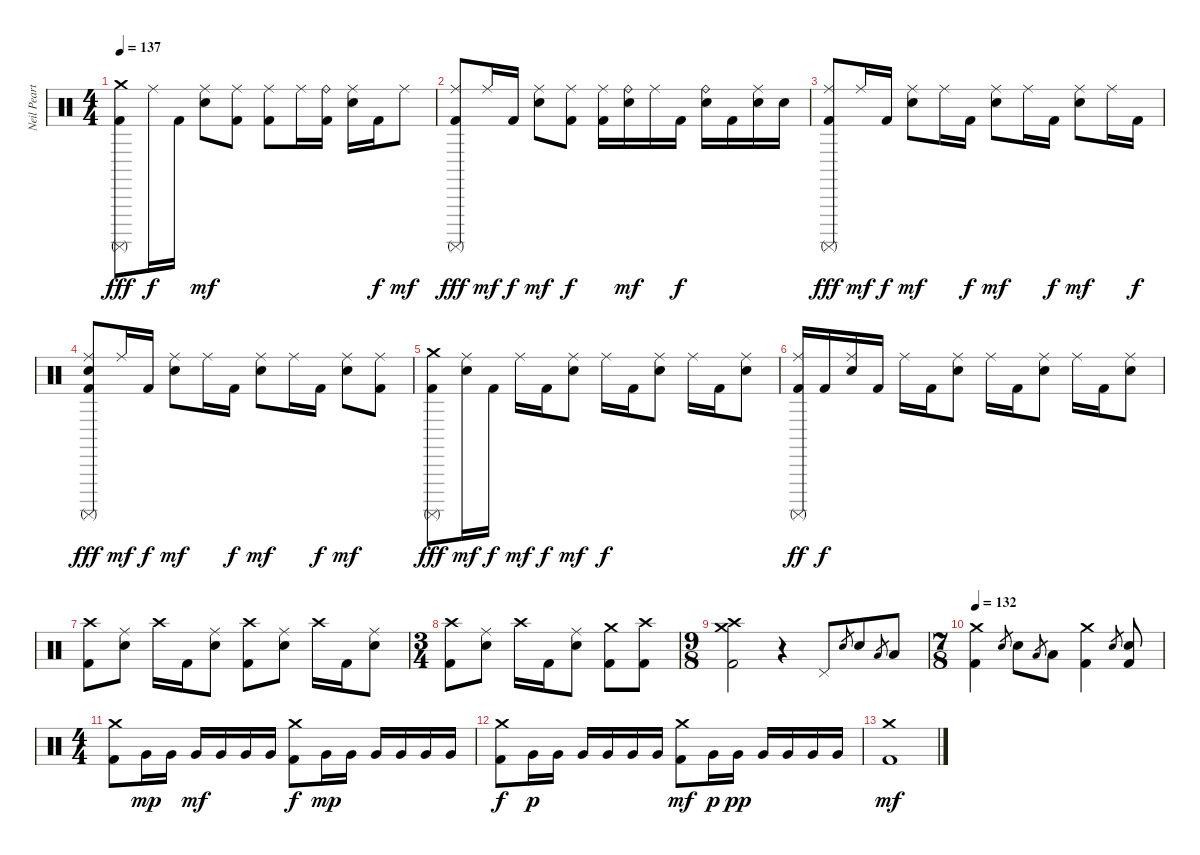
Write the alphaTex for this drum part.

\track ("Neil Peart, Percusión" "Neil Peart") {instrument percussion}
\staff {score}
\articulation defaults
\ts (4 4)
\tempo 137
\clef neutral
\ks c
("Crash medium (hit)" "Surdo (mute)" "Kick (hit) 2").8{dy fff} "Ride (middle)".16{dy f} "Kick (hit) 2".16 ("Ride (middle)" "Electric Snare (hit)").8{dy mf} ("Ride (middle)" "Kick (hit) 2").8 ("Ride (middle)" "Kick (hit) 2").8 "Ride (middle)".16 ("Ride (bell)" "Kick (hit) 2").16 ("Ride (middle)" "Electric Snare (hit)").16 "Kick (hit) 2".16{dy f} "Ride (middle)".8{dy mf} |
("Ride (middle)" "Surdo (mute)" "Kick (hit) 2").8{dy fff} "Ride (middle)".16{dy mf} "Kick (hit) 2".16{dy f} ("Ride (middle)" "Electric Snare (hit)").8{dy mf} ("Ride (middle)" "Kick (hit) 2").8{dy f} ("Ride (middle)" "Kick (hit) 2").16 ("Ride (bell)" "Electric Snare (hit)").16{dy mf} "Ride (middle)".16 "Kick (hit) 2".16{dy f} ("Ride (bell)" "Electric Snare (hit)").16 "Kick (hit) 2".16 ("Ride (middle)" "Electric Snare (hit)").16 "Electric Snare (hit)".16 |
("Ride (middle)" "Surdo (mute)" "Kick (hit) 2").8{dy fff} "Ride (middle)".16{dy mf} "Kick (hit) 2".16{dy f} ("Ride (middle)" "Electric Snare (hit)").8{dy mf} "Ride (middle)".16 "Kick (hit) 2".16{dy f} ("Ride (middle)" "Electric Snare (hit)").8{dy mf} "Ride (middle)".16 "Kick (hit) 2".16{dy f} ("Ride (middle)" "Electric Snare (hit)").8{dy mf} "Ride (middle)".16 "Kick (hit) 2".16{dy f} |
("Ride (middle)" "Electric Snare (hit)" "Surdo (mute)" "Kick (hit) 2").8{dy fff} "Ride (middle)".16{dy mf} "Kick (hit) 2".16{dy f} ("Ride (middle)" "Electric Snare (hit)").8{dy mf} "Ride (middle)".16 "Kick (hit) 2".16{dy f} ("Ride (middle)" "Electric Snare (hit)").8{dy mf} "Ride (middle)".16 "Kick (hit) 2".16{dy f} ("Ride (middle)" "Electric Snare (hit)").8{dy mf} ("Ride (middle)" "Kick (hit) 2").8 |
("Crash medium (hit)" "Surdo (mute)" "Kick (hit) 2").8{dy fff} ("Ride (middle)" "Electric Snare (hit)").16{dy mf} "Kick (hit) 2".16{dy f} "Ride (middle)".16{dy mf} "Kick (hit) 2".16{dy f} ("Ride (middle)" "Electric Snare (hit)").8{dy mf} "Ride (middle)".16{dy f} "Kick (hit) 2".16 ("Ride (middle)" "Electric Snare (hit)").8 "Ride (middle)".16 "Kick (hit) 2".16 ("Ride (middle)" "Electric Snare (hit)").8 |
("Ride (middle)" "Surdo (mute)" "Kick (hit) 2").16{dy ff} "Kick (hit) 2".16{dy f} ("Ride (middle)" "Electric Snare (hit)").16 "Kick (hit) 2".16 "Ride (middle)".16 "Kick (hit) 2".16 ("Ride (middle)" "Electric Snare (hit)").8 "Ride (middle)".16 "Kick (hit) 2".16 ("Ride (middle)" "Electric Snare (hit)").8 "Ride (middle)".16 "Kick (hit) 2".16 ("Ride (middle)" "Electric Snare (hit)").8 |
("Crash high (hit)" "Kick (hit) 2").8 ("Ride (middle)" "Electric Snare (hit)").8 "Crash high (hit)".16 "Kick (hit) 2".16 ("Ride (middle)" "Electric Snare (hit)").8 ("Crash high (hit)" "Kick (hit) 2").8 ("Ride (middle)" "Electric Snare (hit)").8 "Crash high (hit)".16 "Kick (hit) 2".16 ("Ride (middle)" "Electric Snare (hit)").8 |
\ts (3 4)
("Crash high (hit)" "Kick (hit) 2").8 ("Ride (middle)" "Electric Snare (hit)").8 "Crash high (hit)".16 "Kick (hit) 2".16 ("Ride (middle)" "Electric Snare (hit)").8 ("Crash medium (hit)" "Kick (hit) 2").8 ("Crash high (hit)" "Kick (hit) 2").8 |
\ts (9 8)
("Crash medium (hit)" "Crash high (hit)" "Kick (hit) 2").2 r.4 "Pedal Hi-Hat (hit)".8 "Electric Snare (hit)".8{gr} "Electric Snare (hit)".8 "Low Tom (hit)".8{gr} "Low Tom (hit)".8 |
\ts (7 8)
\tempo 132
("Crash medium (hit)" "Kick (hit) 2").4 "Electric Snare (hit)".8{gr} "Electric Snare (hit)".8 "Low Tom (hit)".8{gr} "Low Tom (hit)".8 ("Crash medium (hit)" "Kick (hit) 2").4 "Electric Snare (hit)".8{gr} ("Electric Snare (hit)" "Kick (hit) 2").8 |
\ts (4 4)
("Crash medium (hit)" "Kick (hit) 2").8 "Very Low Tom (hit)".16{dy mp} "Very Low Tom (hit)".16 "Very Low Tom (hit)".16{dy mf} "Very Low Tom (hit)".16 "Very Low Tom (hit)".16 "Very Low Tom (hit)".16 ("Crash medium (hit)" "Kick (hit) 2").8{dy f} "Very Low Tom (hit)".16{dy mp} "Very Low Tom (hit)".16 "Very Low Tom (hit)".16 "Very Low Tom (hit)".16 "Very Low Tom (hit)".16 "Very Low Tom (hit)".16 |
("Crash medium (hit)" "Kick (hit) 2").8{dy f} "Very Low Tom (hit)".16{dy p} "Very Low Tom (hit)".16 "Very Low Tom (hit)".16 "Very Low Tom (hit)".16 "Very Low Tom (hit)".16 "Very Low Tom (hit)".16 ("Crash medium (hit)" "Kick (hit) 2").8{dy mf} "Very Low Tom (hit)".16{dy p} "Very Low Tom (hit)".16{dy pp} "Very Low Tom (hit)".16 "Very Low Tom (hit)".16 "Very Low Tom (hit)".16 "Very Low Tom (hit)".16 |
("Crash medium (hit)" "Kick (hit) 2").1{dy mf}
